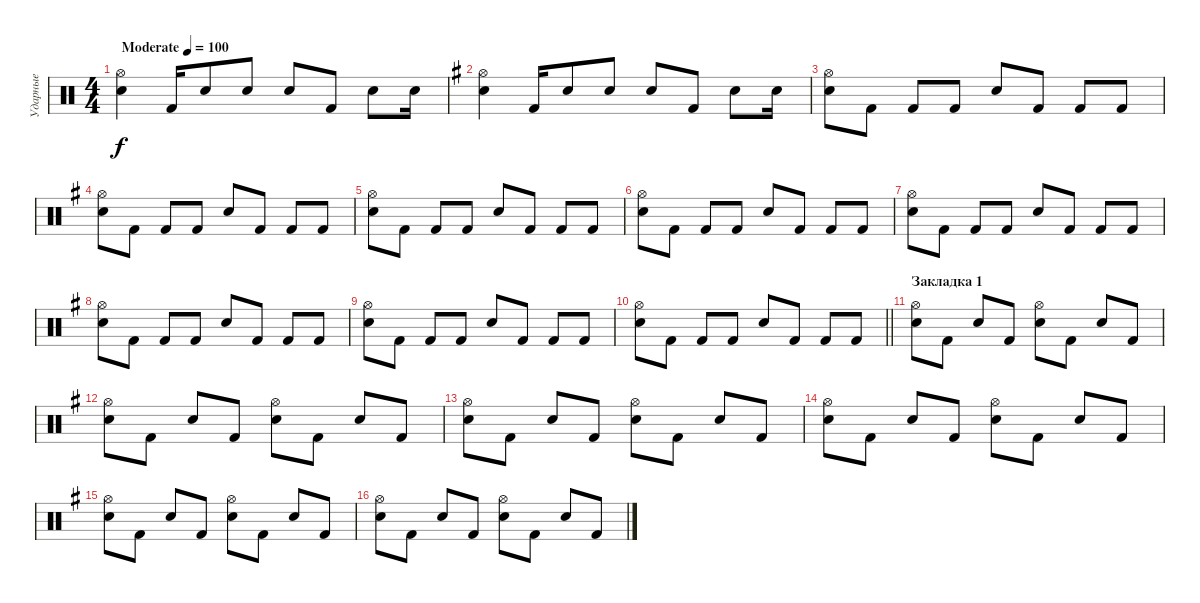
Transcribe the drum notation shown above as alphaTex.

\track ("Ударные" "Ударные") {instrument percussion}
\staff {score}
\articulation defaults
\ts (4 4)
\tempo (100 "Moderate")
\clef neutral
\ks c
("Hi-Hat (open)" "Electric Snare (hit)").4{dy f} "Kick (hit) 2".16 "Electric Snare (hit)".8 "Electric Snare (hit)".8 "Snare (hit) 2".8 "Kick (hit) 2".8 "Electric Snare (hit)".8 "Electric Snare (hit)".16 |
\ks g
("Hi-Hat (open)" "Electric Snare (hit)").4 "Kick (hit) 2".16 "Electric Snare (hit)".8 "Electric Snare (hit)".8 "Snare (hit) 2".8 "Kick (hit) 2".8 "Electric Snare (hit)".8 "Electric Snare (hit)".16 |
("Hi-Hat (open)" "Snare (hit) 2").8 "Kick (hit) 2".8 "Kick (hit) 2".8 "Kick (hit) 2".8 "Snare (hit) 2".8 "Kick (hit) 2".8 "Kick (hit) 2".8 "Kick (hit) 2".8 |
("Hi-Hat (open)" "Snare (hit) 2").8 "Kick (hit) 2".8 "Kick (hit) 2".8 "Kick (hit) 2".8 "Snare (hit) 2".8 "Kick (hit) 2".8 "Kick (hit) 2".8 "Kick (hit) 2".8 |
("Hi-Hat (open)" "Snare (hit) 2").8 "Kick (hit) 2".8 "Kick (hit) 2".8 "Kick (hit) 2".8 "Snare (hit) 2".8 "Kick (hit) 2".8 "Kick (hit) 2".8 "Kick (hit) 2".8 |
("Hi-Hat (open)" "Snare (hit) 2").8 "Kick (hit) 2".8 "Kick (hit) 2".8 "Kick (hit) 2".8 "Snare (hit) 2".8 "Kick (hit) 2".8 "Kick (hit) 2".8 "Kick (hit) 2".8 |
("Hi-Hat (open)" "Snare (hit) 2").8 "Kick (hit) 2".8 "Kick (hit) 2".8 "Kick (hit) 2".8 "Snare (hit) 2".8 "Kick (hit) 2".8 "Kick (hit) 2".8 "Kick (hit) 2".8 |
("Hi-Hat (open)" "Snare (hit) 2").8 "Kick (hit) 2".8 "Kick (hit) 2".8 "Kick (hit) 2".8 "Snare (hit) 2".8 "Kick (hit) 2".8 "Kick (hit) 2".8 "Kick (hit) 2".8 |
("Hi-Hat (open)" "Snare (hit) 2").8 "Kick (hit) 2".8 "Kick (hit) 2".8 "Kick (hit) 2".8 "Snare (hit) 2".8 "Kick (hit) 2".8 "Kick (hit) 2".8 "Kick (hit) 2".8 |
\barLineRight lightlight
("Hi-Hat (open)" "Snare (hit) 2").8 "Kick (hit) 2".8 "Kick (hit) 2".8 "Kick (hit) 2".8 "Snare (hit) 2".8 "Kick (hit) 2".8 "Kick (hit) 2".8 "Kick (hit) 2".8 |
\section ("" "Закладка 1")
("Hi-Hat (open)" "Snare (hit) 2").8 "Kick (hit) 2".8 "Electric Snare (hit)".8 "Kick (hit) 2".8 ("Hi-Hat (open)" "Snare (hit) 2").8 "Kick (hit) 2".8 "Electric Snare (hit)".8 "Kick (hit) 2".8 |
("Hi-Hat (open)" "Snare (hit) 2").8 "Kick (hit) 2".8 "Electric Snare (hit)".8 "Kick (hit) 2".8 ("Hi-Hat (open)" "Snare (hit) 2").8 "Kick (hit) 2".8 "Electric Snare (hit)".8 "Kick (hit) 2".8 |
("Hi-Hat (open)" "Snare (hit) 2").8 "Kick (hit) 2".8 "Electric Snare (hit)".8 "Kick (hit) 2".8 ("Hi-Hat (open)" "Snare (hit) 2").8 "Kick (hit) 2".8 "Electric Snare (hit)".8 "Kick (hit) 2".8 |
("Hi-Hat (open)" "Snare (hit) 2").8 "Kick (hit) 2".8 "Electric Snare (hit)".8 "Kick (hit) 2".8 ("Hi-Hat (open)" "Snare (hit) 2").8 "Kick (hit) 2".8 "Electric Snare (hit)".8 "Kick (hit) 2".8 |
("Hi-Hat (open)" "Snare (hit) 2").8 "Kick (hit) 2".8 "Electric Snare (hit)".8 "Kick (hit) 2".8 ("Hi-Hat (open)" "Snare (hit) 2").8 "Kick (hit) 2".8 "Electric Snare (hit)".8 "Kick (hit) 2".8 |
("Hi-Hat (open)" "Snare (hit) 2").8 "Kick (hit) 2".8 "Electric Snare (hit)".8 "Kick (hit) 2".8 ("Hi-Hat (open)" "Snare (hit) 2").8 "Kick (hit) 2".8 "Electric Snare (hit)".8 "Kick (hit) 2".8
